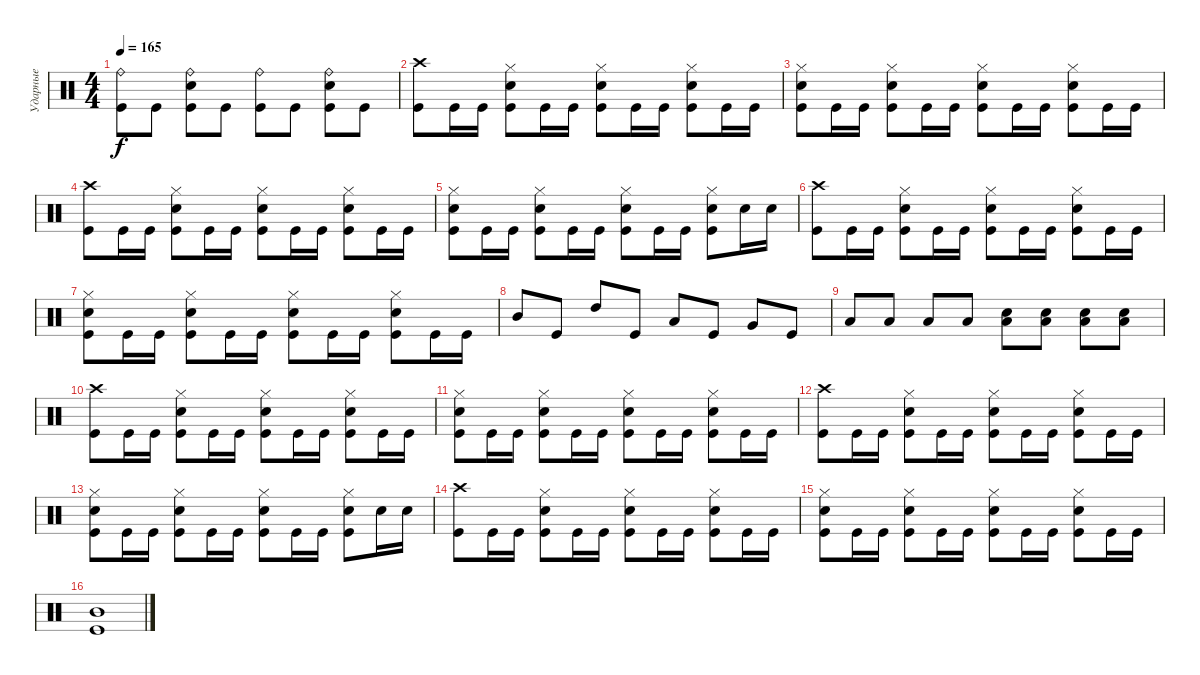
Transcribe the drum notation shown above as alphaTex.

\track ("Ударные" "Ударные") {instrument percussion}
\staff {score}
\articulation defaults
\ts (4 4)
\tempo 165
\clef neutral
\ks c
("Ride (bell)" "Kick (hit)").8{dy f} "Kick (hit)".8 ("Ride (bell)" "Electric Snare (hit)" "Kick (hit)").8 "Kick (hit)".8 ("Ride (bell)" "Kick (hit)").8 "Kick (hit)".8 ("Ride (bell)" "Electric Snare (hit)" "Kick (hit)").8 "Kick (hit)".8 |
("Crash high (hit)" "Kick (hit)").8 "Kick (hit)".16 "Kick (hit)".16 ("Hi-Hat (closed)" "Electric Snare (hit)" "Kick (hit)").8 "Kick (hit)".16 "Kick (hit)".16 ("Hi-Hat (closed)" "Electric Snare (hit)" "Kick (hit)").8 "Kick (hit)".16 "Kick (hit)".16 ("Hi-Hat (closed)" "Electric Snare (hit)" "Kick (hit)").8 "Kick (hit)".16 "Kick (hit)".16 |
("Hi-Hat (closed)" "Electric Snare (hit)" "Kick (hit)").8 "Kick (hit)".16 "Kick (hit)".16 ("Hi-Hat (closed)" "Electric Snare (hit)" "Kick (hit)").8 "Kick (hit)".16 "Kick (hit)".16 ("Hi-Hat (closed)" "Electric Snare (hit)" "Kick (hit)").8 "Kick (hit)".16 "Kick (hit)".16 ("Hi-Hat (closed)" "Electric Snare (hit)" "Kick (hit)").8 "Kick (hit)".16 "Kick (hit)".16 |
("Crash high (hit)" "Kick (hit)").8 "Kick (hit)".16 "Kick (hit)".16 ("Hi-Hat (closed)" "Electric Snare (hit)" "Kick (hit)").8 "Kick (hit)".16 "Kick (hit)".16 ("Hi-Hat (closed)" "Electric Snare (hit)" "Kick (hit)").8 "Kick (hit)".16 "Kick (hit)".16 ("Hi-Hat (closed)" "Electric Snare (hit)" "Kick (hit)").8 "Kick (hit)".16 "Kick (hit)".16 |
("Hi-Hat (closed)" "Electric Snare (hit)" "Kick (hit)").8 "Kick (hit)".16 "Kick (hit)".16 ("Hi-Hat (closed)" "Electric Snare (hit)" "Kick (hit)").8 "Kick (hit)".16 "Kick (hit)".16 ("Hi-Hat (closed)" "Electric Snare (hit)" "Kick (hit)").8 "Kick (hit)".16 "Kick (hit)".16 ("Hi-Hat (closed)" "Electric Snare (hit)" "Kick (hit)").8 "Electric Snare (hit)".16 "Electric Snare (hit)".16 |
("Crash high (hit)" "Kick (hit)").8 "Kick (hit)".16 "Kick (hit)".16 ("Hi-Hat (closed)" "Electric Snare (hit)" "Kick (hit)").8 "Kick (hit)".16 "Kick (hit)".16 ("Hi-Hat (closed)" "Electric Snare (hit)" "Kick (hit)").8 "Kick (hit)".16 "Kick (hit)".16 ("Hi-Hat (closed)" "Electric Snare (hit)" "Kick (hit)").8 "Kick (hit)".16 "Kick (hit)".16 |
("Hi-Hat (closed)" "Electric Snare (hit)" "Kick (hit)").8 "Kick (hit)".16 "Kick (hit)".16 ("Hi-Hat (closed)" "Electric Snare (hit)" "Kick (hit)").8 "Kick (hit)".16 "Kick (hit)".16 ("Hi-Hat (closed)" "Electric Snare (hit)" "Kick (hit)").8 "Kick (hit)".16 "Kick (hit)".16 ("Hi-Hat (closed)" "Electric Snare (hit)" "Kick (hit)").8 "Kick (hit)".16 "Kick (hit)".16 |
"Mid Tom (hit)".8 "Kick (hit)".8 "High Tom (hit)".8 "Kick (hit)".8 "Low Tom (hit)".8 "Kick (hit)".8 "Very Low Tom (hit)".8 "Kick (hit)".8 |
"Low Tom (hit)".8 "Low Tom (hit)".8 "Low Tom (hit)".8 "Low Tom (hit)".8 ("Electric Snare (hit)" "Low Tom (hit)").8 ("Electric Snare (hit)" "Low Tom (hit)").8 ("Electric Snare (hit)" "Low Tom (hit)").8 ("Electric Snare (hit)" "Low Tom (hit)").8 |
("Crash high (hit)" "Kick (hit)").8 "Kick (hit)".16 "Kick (hit)".16 ("Hi-Hat (closed)" "Electric Snare (hit)" "Kick (hit)").8 "Kick (hit)".16 "Kick (hit)".16 ("Hi-Hat (closed)" "Electric Snare (hit)" "Kick (hit)").8 "Kick (hit)".16 "Kick (hit)".16 ("Hi-Hat (closed)" "Electric Snare (hit)" "Kick (hit)").8 "Kick (hit)".16 "Kick (hit)".16 |
("Hi-Hat (closed)" "Electric Snare (hit)" "Kick (hit)").8 "Kick (hit)".16 "Kick (hit)".16 ("Hi-Hat (closed)" "Electric Snare (hit)" "Kick (hit)").8 "Kick (hit)".16 "Kick (hit)".16 ("Hi-Hat (closed)" "Electric Snare (hit)" "Kick (hit)").8 "Kick (hit)".16 "Kick (hit)".16 ("Hi-Hat (closed)" "Electric Snare (hit)" "Kick (hit)").8 "Kick (hit)".16 "Kick (hit)".16 |
("Crash high (hit)" "Kick (hit)").8 "Kick (hit)".16 "Kick (hit)".16 ("Hi-Hat (closed)" "Electric Snare (hit)" "Kick (hit)").8 "Kick (hit)".16 "Kick (hit)".16 ("Hi-Hat (closed)" "Electric Snare (hit)" "Kick (hit)").8 "Kick (hit)".16 "Kick (hit)".16 ("Hi-Hat (closed)" "Electric Snare (hit)" "Kick (hit)").8 "Kick (hit)".16 "Kick (hit)".16 |
("Hi-Hat (closed)" "Electric Snare (hit)" "Kick (hit)").8 "Kick (hit)".16 "Kick (hit)".16 ("Hi-Hat (closed)" "Electric Snare (hit)" "Kick (hit)").8 "Kick (hit)".16 "Kick (hit)".16 ("Hi-Hat (closed)" "Electric Snare (hit)" "Kick (hit)").8 "Kick (hit)".16 "Kick (hit)".16 ("Hi-Hat (closed)" "Electric Snare (hit)" "Kick (hit)").8 "Electric Snare (hit)".16 "Electric Snare (hit)".16 |
("Crash high (hit)" "Kick (hit)").8 "Kick (hit)".16 "Kick (hit)".16 ("Hi-Hat (closed)" "Electric Snare (hit)" "Kick (hit)").8 "Kick (hit)".16 "Kick (hit)".16 ("Hi-Hat (closed)" "Electric Snare (hit)" "Kick (hit)").8 "Kick (hit)".16 "Kick (hit)".16 ("Hi-Hat (closed)" "Electric Snare (hit)" "Kick (hit)").8 "Kick (hit)".16 "Kick (hit)".16 |
("Hi-Hat (closed)" "Electric Snare (hit)" "Kick (hit)").8 "Kick (hit)".16 "Kick (hit)".16 ("Hi-Hat (closed)" "Electric Snare (hit)" "Kick (hit)").8 "Kick (hit)".16 "Kick (hit)".16 ("Hi-Hat (closed)" "Electric Snare (hit)" "Kick (hit)").8 "Kick (hit)".16 "Kick (hit)".16 ("Hi-Hat (closed)" "Electric Snare (hit)" "Kick (hit)").8 "Kick (hit)".16 "Kick (hit)".16 |
("Mid Tom (hit)" "Kick (hit)").1
